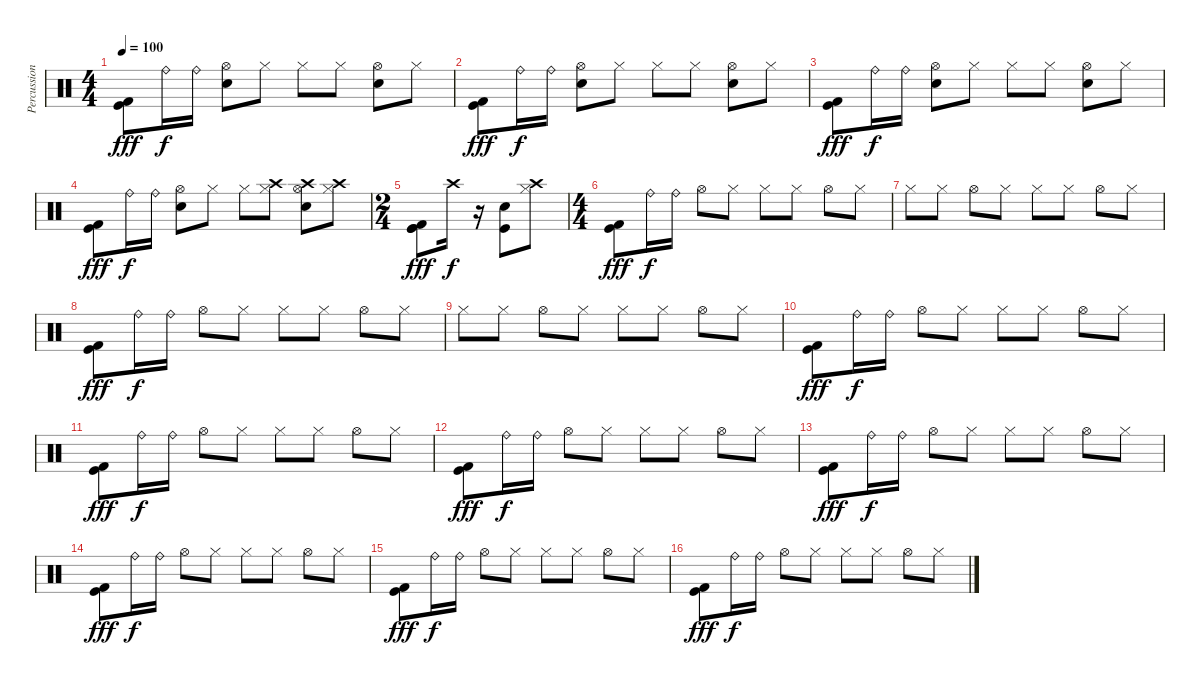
\track ("Percussion" "Percussion") {instrument percussion}
\staff {score}
\articulation defaults
\ts (4 4)
\tempo 100
\clef neutral
\ks c
("Kick (hit) 2" "Kick (hit)").8{dy fff} "Ride (bell)".16{dy f} "Ride (bell)".16 ("Snare (hit) 2" "Hi-Hat (open)").8 "Hi-Hat (closed)".8 "Hi-Hat (closed)".8 "Hi-Hat (closed)".8 ("Snare (hit) 2" "Hi-Hat (open)").8 "Hi-Hat (closed)".8 |
("Kick (hit) 2" "Kick (hit)").8{dy fff} "Ride (bell)".16{dy f} "Ride (bell)".16 ("Snare (hit) 2" "Hi-Hat (open)").8 "Hi-Hat (closed)".8 "Hi-Hat (closed)".8 "Hi-Hat (closed)".8 ("Snare (hit) 2" "Hi-Hat (open)").8 "Hi-Hat (closed)".8 |
("Kick (hit) 2" "Kick (hit)").8{dy fff} "Ride (bell)".16{dy f} "Ride (bell)".16 ("Snare (hit) 2" "Hi-Hat (open)").8 "Hi-Hat (closed)".8 "Hi-Hat (closed)".8 "Hi-Hat (closed)".8 ("Snare (hit) 2" "Hi-Hat (open)").8 "Hi-Hat (closed)".8 |
("Kick (hit) 2" "Kick (hit)").8{dy fff} "Ride (bell)".16{dy f} "Ride (bell)".16 ("Snare (hit) 2" "Hi-Hat (open)").8 "Hi-Hat (closed)".8 "Hi-Hat (closed)".8 ("Crash high (hit)" "Hi-Hat (closed)").8 ("Crash high (hit)" "Snare (hit) 2" "Hi-Hat (open)").8 ("Crash high (hit)" "Hi-Hat (closed)").8 |
\ts (2 4)
("Kick (hit)" "Kick (hit) 2" "Kick (hit)").8{dy fff} "Crash high (hit)".16{dy f} r.16 ("Kick (hit)" "Snare (hit) 2").8 ("Crash high (hit)" "Hi-Hat (closed)").8 |
\ts (4 4)
("Kick (hit) 2" "Kick (hit)").8{dy fff} "Ride (bell)".16{dy f} "Ride (bell)".16 "Hi-Hat (open)".8 "Hi-Hat (closed)".8 "Hi-Hat (closed)".8 "Hi-Hat (closed)".8 "Hi-Hat (open)".8 "Hi-Hat (closed)".8 |
"Hi-Hat (closed)".8 "Hi-Hat (closed)".8 "Hi-Hat (open)".8 "Hi-Hat (closed)".8 "Hi-Hat (closed)".8 "Hi-Hat (closed)".8 "Hi-Hat (open)".8 "Hi-Hat (closed)".8 |
("Kick (hit) 2" "Kick (hit)").8{dy fff} "Ride (bell)".16{dy f} "Ride (bell)".16 "Hi-Hat (open)".8 "Hi-Hat (closed)".8 "Hi-Hat (closed)".8 "Hi-Hat (closed)".8 "Hi-Hat (open)".8 "Hi-Hat (closed)".8 |
"Hi-Hat (closed)".8 "Hi-Hat (closed)".8 "Hi-Hat (open)".8 "Hi-Hat (closed)".8 "Hi-Hat (closed)".8 "Hi-Hat (closed)".8 "Hi-Hat (open)".8 "Hi-Hat (closed)".8 |
("Kick (hit) 2" "Kick (hit)").8{dy fff} "Ride (bell)".16{dy f} "Ride (bell)".16 "Hi-Hat (open)".8 "Hi-Hat (closed)".8 "Hi-Hat (closed)".8 "Hi-Hat (closed)".8 "Hi-Hat (open)".8 "Hi-Hat (closed)".8 |
("Kick (hit) 2" "Kick (hit)").8{dy fff} "Ride (bell)".16{dy f} "Ride (bell)".16 "Hi-Hat (open)".8 "Hi-Hat (closed)".8 "Hi-Hat (closed)".8 "Hi-Hat (closed)".8 "Hi-Hat (open)".8 "Hi-Hat (closed)".8 |
("Kick (hit) 2" "Kick (hit)").8{dy fff} "Ride (bell)".16{dy f} "Ride (bell)".16 "Hi-Hat (open)".8 "Hi-Hat (closed)".8 "Hi-Hat (closed)".8 "Hi-Hat (closed)".8 "Hi-Hat (open)".8 "Hi-Hat (closed)".8 |
("Kick (hit) 2" "Kick (hit)").8{dy fff} "Ride (bell)".16{dy f} "Ride (bell)".16 "Hi-Hat (open)".8 "Hi-Hat (closed)".8 "Hi-Hat (closed)".8 "Hi-Hat (closed)".8 "Hi-Hat (open)".8 "Hi-Hat (closed)".8 |
("Kick (hit) 2" "Kick (hit)").8{dy fff} "Ride (bell)".16{dy f} "Ride (bell)".16 "Hi-Hat (open)".8 "Hi-Hat (closed)".8 "Hi-Hat (closed)".8 "Hi-Hat (closed)".8 "Hi-Hat (open)".8 "Hi-Hat (closed)".8 |
("Kick (hit) 2" "Kick (hit)").8{dy fff} "Ride (bell)".16{dy f} "Ride (bell)".16 "Hi-Hat (open)".8 "Hi-Hat (closed)".8 "Hi-Hat (closed)".8 "Hi-Hat (closed)".8 "Hi-Hat (open)".8 "Hi-Hat (closed)".8 |
("Kick (hit) 2" "Kick (hit)").8{dy fff} "Ride (bell)".16{dy f} "Ride (bell)".16 "Hi-Hat (open)".8 "Hi-Hat (closed)".8 "Hi-Hat (closed)".8 "Hi-Hat (closed)".8 "Hi-Hat (open)".8 "Hi-Hat (closed)".8
